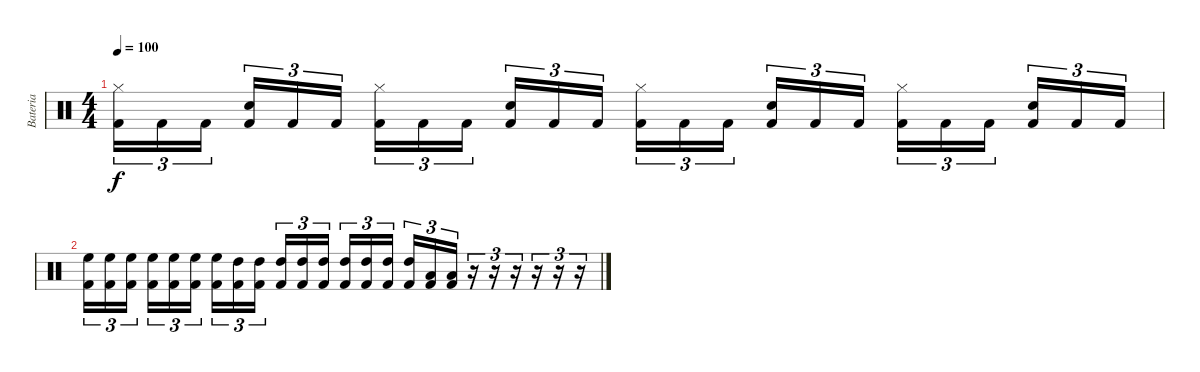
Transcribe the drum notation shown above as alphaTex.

\track ("Bateria" "Bateria") {instrument percussion}
\staff {score}
\articulation defaults
\ts (4 4)
\tempo 100
\clef neutral
\ks c
("Hi-Hat (closed)" "Kick (hit) 2").16{tu (3 2) dy f} "Kick (hit) 2".16{tu (3 2)} "Kick (hit) 2".16{tu (3 2)} ("Snare (hit) 2" "Kick (hit) 2").16{tu (3 2)} "Kick (hit) 2".16{tu (3 2)} "Kick (hit) 2".16{tu (3 2)} ("Hi-Hat (closed)" "Kick (hit) 2").16{tu (3 2)} "Kick (hit) 2".16{tu (3 2)} "Kick (hit) 2".16{tu (3 2)} ("Snare (hit) 2" "Kick (hit) 2").16{tu (3 2)} "Kick (hit) 2".16{tu (3 2)} "Kick (hit) 2".16{tu (3 2)} ("Hi-Hat (closed)" "Kick (hit) 2").16{tu (3 2)} "Kick (hit) 2".16{tu (3 2)} "Kick (hit) 2".16{tu (3 2)} ("Snare (hit) 2" "Kick (hit) 2").16{tu (3 2)} "Kick (hit) 2".16{tu (3 2)} "Kick (hit) 2".16{tu (3 2)} ("Hi-Hat (closed)" "Kick (hit) 2").16{tu (3 2)} "Kick (hit) 2".16{tu (3 2)} "Kick (hit) 2".16{tu (3 2)} ("Snare (hit) 2" "Kick (hit) 2").16{tu (3 2)} "Kick (hit) 2".16{tu (3 2)} "Kick (hit) 2".16{tu (3 2)} |
("High Floor Tom (hit)" "Kick (hit) 2").16{tu (3 2)} ("High Floor Tom (hit)" "Kick (hit) 2").16{tu (3 2)} ("High Floor Tom (hit)" "Kick (hit) 2").16{tu (3 2)} ("High Floor Tom (hit)" "Kick (hit) 2").16{tu (3 2)} ("High Floor Tom (hit)" "Kick (hit) 2").16{tu (3 2)} ("High Floor Tom (hit)" "Kick (hit) 2").16{tu (3 2)} ("High Floor Tom (hit)" "Kick (hit) 2").16{tu (3 2)} ("High Tom (hit)" "Kick (hit) 2").16{tu (3 2)} ("High Tom (hit)" "Kick (hit) 2").16{tu (3 2)} ("High Tom (hit)" "Kick (hit) 2").16{tu (3 2)} ("High Tom (hit)" "Kick (hit) 2").16{tu (3 2)} ("High Tom (hit)" "Kick (hit) 2").16{tu (3 2)} ("High Tom (hit)" "Kick (hit) 2").16{tu (3 2)} ("High Tom (hit)" "Kick (hit) 2").16{tu (3 2)} ("High Tom (hit)" "Kick (hit) 2").16{tu (3 2)} ("High Tom (hit)" "Kick (hit) 2").16{tu (3 2)} ("Low Tom (hit)" "Kick (hit) 2").16{tu (3 2)} ("Low Tom (hit)" "Kick (hit) 2").16{tu (3 2)} r.16{tu (3 2)} r.16{tu (3 2)} r.16{tu (3 2)} r.16{tu (3 2)} r.16{tu (3 2)} r.16{tu (3 2)}
